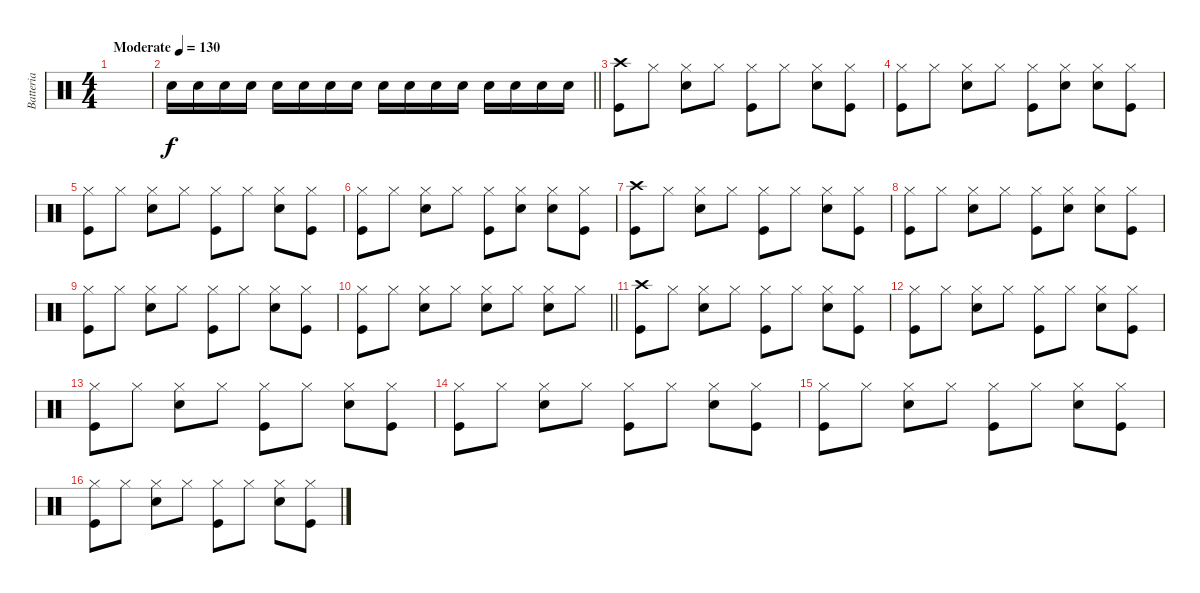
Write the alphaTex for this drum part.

\track ("Batteria" "Batteria") {instrument percussion}
\staff {score}
\articulation defaults
\ts (4 4)
\tempo (130 "Moderate")
\clef neutral
\ks c
|
\barLineRight lightlight "Snare (hit) 2".16 "Snare (hit) 2".16 "Snare (hit) 2".16 "Snare (hit) 2".16 "Snare (hit) 2".16 "Snare (hit) 2".16 "Snare (hit) 2".16 "Snare (hit) 2".16 "Snare (hit) 2".16 "Snare (hit) 2".16 "Snare (hit) 2".16 "Snare (hit) 2".16 "Snare (hit) 2".16 "Snare (hit) 2".16 "Snare (hit) 2".16 "Snare (hit) 2".16
|
("Kick (hit)" "Crash high (hit)").8 "Hi-Hat (closed)".8 ("Snare (hit) 2" "Hi-Hat (closed)").8 "Hi-Hat (closed)".8 ("Kick (hit)" "Hi-Hat (closed)").8 "Hi-Hat (closed)".8 ("Snare (hit) 2" "Hi-Hat (closed)").8 ("Kick (hit)" "Hi-Hat (closed)").8 |
("Kick (hit)" "Hi-Hat (closed)").8 "Hi-Hat (closed)".8 ("Snare (hit) 2" "Hi-Hat (closed)").8 "Hi-Hat (closed)".8 ("Kick (hit)" "Hi-Hat (closed)").8 ("Hi-Hat (closed)" "Snare (hit) 2").8 ("Snare (hit) 2" "Hi-Hat (closed)").8 ("Kick (hit)" "Hi-Hat (closed)").8 |
("Kick (hit)" "Hi-Hat (closed)").8 "Hi-Hat (closed)".8 ("Snare (hit) 2" "Hi-Hat (closed)").8 "Hi-Hat (closed)".8 ("Kick (hit)" "Hi-Hat (closed)").8 "Hi-Hat (closed)".8 ("Snare (hit) 2" "Hi-Hat (closed)").8 ("Kick (hit)" "Hi-Hat (closed)").8 |
("Kick (hit)" "Hi-Hat (closed)").8 "Hi-Hat (closed)".8 ("Snare (hit) 2" "Hi-Hat (closed)").8 "Hi-Hat (closed)".8 ("Kick (hit)" "Hi-Hat (closed)").8 ("Hi-Hat (closed)" "Snare (hit) 2").8 ("Snare (hit) 2" "Hi-Hat (closed)").8 ("Kick (hit)" "Hi-Hat (closed)").8 |
("Kick (hit)" "Crash high (hit)").8 "Hi-Hat (closed)".8 ("Snare (hit) 2" "Hi-Hat (closed)").8 "Hi-Hat (closed)".8 ("Kick (hit)" "Hi-Hat (closed)").8 "Hi-Hat (closed)".8 ("Snare (hit) 2" "Hi-Hat (closed)").8 ("Kick (hit)" "Hi-Hat (closed)").8 |
("Kick (hit)" "Hi-Hat (closed)").8 "Hi-Hat (closed)".8 ("Snare (hit) 2" "Hi-Hat (closed)").8 "Hi-Hat (closed)".8 ("Kick (hit)" "Hi-Hat (closed)").8 ("Hi-Hat (closed)" "Snare (hit) 2").8 ("Snare (hit) 2" "Hi-Hat (closed)").8 ("Kick (hit)" "Hi-Hat (closed)").8 |
("Kick (hit)" "Hi-Hat (closed)").8 "Hi-Hat (closed)".8 ("Snare (hit) 2" "Hi-Hat (closed)").8 "Hi-Hat (closed)".8 ("Kick (hit)" "Hi-Hat (closed)").8 "Hi-Hat (closed)".8 ("Snare (hit) 2" "Hi-Hat (closed)").8 ("Kick (hit)" "Hi-Hat (closed)").8 |
\barLineRight lightlight
("Kick (hit)" "Hi-Hat (closed)").8 "Hi-Hat (closed)".8 ("Snare (hit) 2" "Hi-Hat (closed)").8 "Hi-Hat (closed)".8 ("Snare (hit) 2" "Hi-Hat (closed)").8 "Hi-Hat (closed)".8 ("Snare (hit) 2" "Hi-Hat (closed)").8 "Hi-Hat (closed)".8 |
("Kick (hit)" "Crash high (hit)").8 "Hi-Hat (closed)".8 ("Snare (hit) 2" "Hi-Hat (closed)").8 "Hi-Hat (closed)".8 ("Kick (hit)" "Hi-Hat (closed)").8 "Hi-Hat (closed)".8 ("Snare (hit) 2" "Hi-Hat (closed)").8 ("Kick (hit)" "Hi-Hat (closed)").8 |
("Kick (hit)" "Hi-Hat (closed)").8 "Hi-Hat (closed)".8 ("Snare (hit) 2" "Hi-Hat (closed)").8 "Hi-Hat (closed)".8 ("Kick (hit)" "Hi-Hat (closed)").8 "Hi-Hat (closed)".8 ("Snare (hit) 2" "Hi-Hat (closed)").8 ("Kick (hit)" "Hi-Hat (closed)").8 |
("Kick (hit)" "Hi-Hat (closed)").8 "Hi-Hat (closed)".8 ("Snare (hit) 2" "Hi-Hat (closed)").8 "Hi-Hat (closed)".8 ("Kick (hit)" "Hi-Hat (closed)").8 "Hi-Hat (closed)".8 ("Snare (hit) 2" "Hi-Hat (closed)").8 ("Kick (hit)" "Hi-Hat (closed)").8 |
("Kick (hit)" "Hi-Hat (closed)").8 "Hi-Hat (closed)".8 ("Snare (hit) 2" "Hi-Hat (closed)").8 "Hi-Hat (closed)".8 ("Kick (hit)" "Hi-Hat (closed)").8 "Hi-Hat (closed)".8 ("Snare (hit) 2" "Hi-Hat (closed)").8 ("Kick (hit)" "Hi-Hat (closed)").8 |
("Kick (hit)" "Hi-Hat (closed)").8 "Hi-Hat (closed)".8 ("Snare (hit) 2" "Hi-Hat (closed)").8 "Hi-Hat (closed)".8 ("Kick (hit)" "Hi-Hat (closed)").8 "Hi-Hat (closed)".8 ("Snare (hit) 2" "Hi-Hat (closed)").8 ("Kick (hit)" "Hi-Hat (closed)").8 |
("Kick (hit)" "Hi-Hat (closed)").8 "Hi-Hat (closed)".8 ("Snare (hit) 2" "Hi-Hat (closed)").8 "Hi-Hat (closed)".8 ("Kick (hit)" "Hi-Hat (closed)").8 "Hi-Hat (closed)".8 ("Snare (hit) 2" "Hi-Hat (closed)").8 ("Kick (hit)" "Hi-Hat (closed)").8
